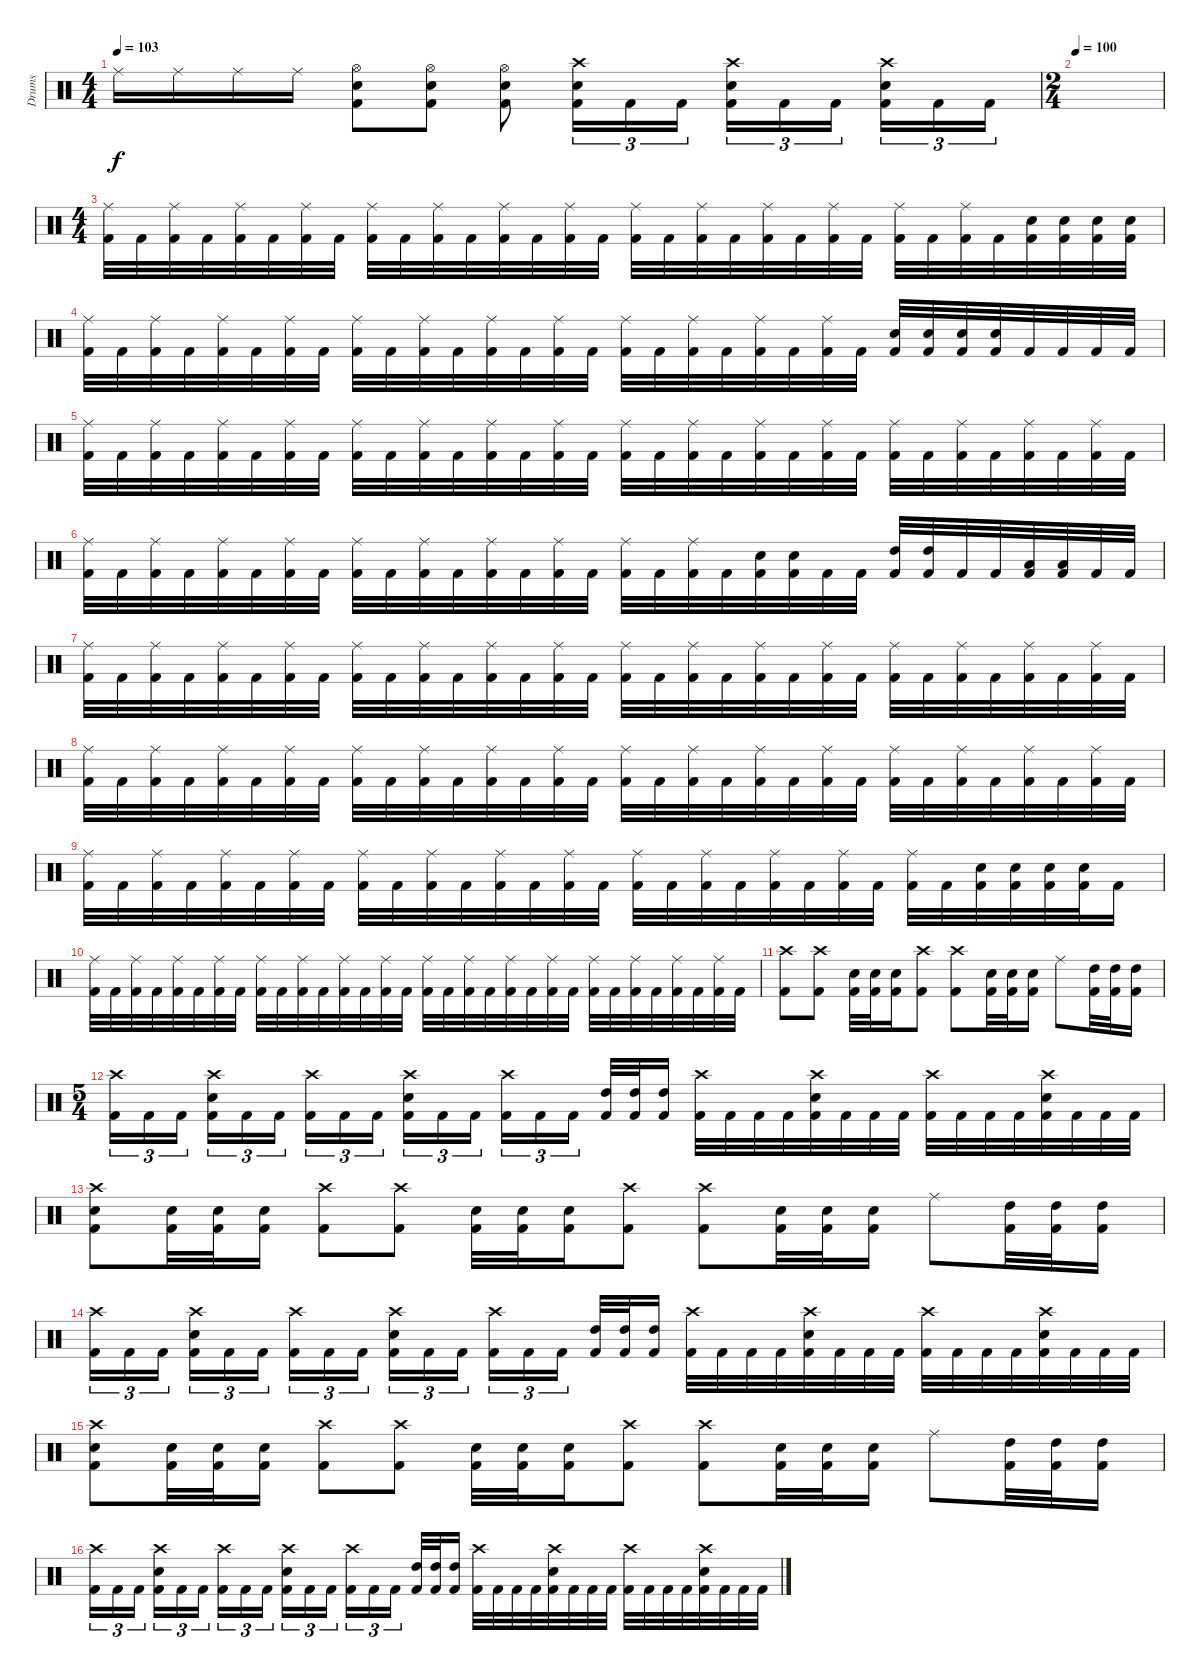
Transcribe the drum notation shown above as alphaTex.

\track ("Drums" "Drums") {instrument percussion}
\staff {score}
\articulation defaults
\ts (4 4)
\tempo 103
\clef neutral
\ks c "Ride (middle)".16{dy f} "Ride (middle)".16 "Ride (middle)".16 "Ride (middle)".16
("Hi-Hat (open)" "Electric Snare (hit)" "Kick (hit) 2").8 ("Hi-Hat (open)" "Electric Snare (hit)" "Kick (hit) 2").8 ("Hi-Hat (open)" "Electric Snare (hit)" "Kick (hit) 2").8 ("Crash high (hit)" "Electric Snare (hit)" "Kick (hit) 2").16{tu (3 2)} "Kick (hit) 2".16{tu (3 2)} "Kick (hit) 2".16{tu (3 2)} ("Crash high (hit)" "Electric Snare (hit)" "Kick (hit) 2").16{tu (3 2)} "Kick (hit) 2".16{tu (3 2)} "Kick (hit) 2".16{tu (3 2) beam splitsecondary} ("Crash high (hit)" "Electric Snare (hit)" "Kick (hit) 2").16{tu (3 2)} "Kick (hit) 2".16{tu (3 2)} "Kick (hit) 2".16{tu (3 2)} |
\ts (2 4)
\tempo 100
|
\ts (4 4)
("Ride (middle)" "Kick (hit) 2").32 "Kick (hit) 2".32 ("Ride (middle)" "Kick (hit) 2").32 "Kick (hit) 2".32 ("Ride (middle)" "Kick (hit) 2").32 "Kick (hit) 2".32 ("Ride (middle)" "Kick (hit) 2").32 "Kick (hit) 2".32 ("Ride (middle)" "Kick (hit) 2").32 "Kick (hit) 2".32 ("Ride (middle)" "Kick (hit) 2").32 "Kick (hit) 2".32 ("Ride (middle)" "Kick (hit) 2").32 "Kick (hit) 2".32 ("Ride (middle)" "Kick (hit) 2").32 "Kick (hit) 2".32 ("Ride (middle)" "Kick (hit) 2").32 "Kick (hit) 2".32 ("Ride (middle)" "Kick (hit) 2").32 "Kick (hit) 2".32 ("Ride (middle)" "Kick (hit) 2").32 "Kick (hit) 2".32 ("Ride (middle)" "Kick (hit) 2").32 "Kick (hit) 2".32 ("Ride (middle)" "Kick (hit) 2").32 "Kick (hit) 2".32 ("Ride (middle)" "Kick (hit) 2").32 "Kick (hit) 2".32 ("Electric Snare (hit)" "Kick (hit) 2").32 ("Electric Snare (hit)" "Kick (hit) 2").32 ("Electric Snare (hit)" "Kick (hit) 2").32 ("Electric Snare (hit)" "Kick (hit) 2").32 |
("Ride (middle)" "Kick (hit) 2").32 "Kick (hit) 2".32 ("Ride (middle)" "Kick (hit) 2").32 "Kick (hit) 2".32 ("Ride (middle)" "Kick (hit) 2").32 "Kick (hit) 2".32 ("Ride (middle)" "Kick (hit) 2").32 "Kick (hit) 2".32 ("Ride (middle)" "Kick (hit) 2").32 "Kick (hit) 2".32 ("Ride (middle)" "Kick (hit) 2").32 "Kick (hit) 2".32 ("Ride (middle)" "Kick (hit) 2").32 "Kick (hit) 2".32 ("Ride (middle)" "Kick (hit) 2").32 "Kick (hit) 2".32 ("Ride (middle)" "Kick (hit) 2").32 "Kick (hit) 2".32 ("Ride (middle)" "Kick (hit) 2").32 "Kick (hit) 2".32 ("Ride (middle)" "Kick (hit) 2").32 "Kick (hit) 2".32 ("Ride (middle)" "Kick (hit) 2").32 "Kick (hit) 2".32 ("Electric Snare (hit)" "Kick (hit) 2").32 ("Electric Snare (hit)" "Kick (hit) 2").32 ("Electric Snare (hit)" "Kick (hit) 2").32 ("Electric Snare (hit)" "Kick (hit) 2").32 "Kick (hit) 2".32 "Kick (hit) 2".32 "Kick (hit) 2".32 "Kick (hit) 2".32 |
("Ride (middle)" "Kick (hit) 2").32 "Kick (hit) 2".32 ("Ride (middle)" "Kick (hit) 2").32 "Kick (hit) 2".32 ("Ride (middle)" "Kick (hit) 2").32 "Kick (hit) 2".32 ("Ride (middle)" "Kick (hit) 2").32 "Kick (hit) 2".32 ("Ride (middle)" "Kick (hit) 2").32 "Kick (hit) 2".32 ("Ride (middle)" "Kick (hit) 2").32 "Kick (hit) 2".32 ("Ride (middle)" "Kick (hit) 2").32 "Kick (hit) 2".32 ("Ride (middle)" "Kick (hit) 2").32 "Kick (hit) 2".32 ("Ride (middle)" "Kick (hit) 2").32 "Kick (hit) 2".32 ("Ride (middle)" "Kick (hit) 2").32 "Kick (hit) 2".32 ("Ride (middle)" "Kick (hit) 2").32 "Kick (hit) 2".32 ("Ride (middle)" "Kick (hit) 2").32 "Kick (hit) 2".32 ("Ride (middle)" "Kick (hit) 2").32 "Kick (hit) 2".32 ("Ride (middle)" "Kick (hit) 2").32 "Kick (hit) 2".32 ("Ride (middle)" "Kick (hit) 2").32 "Kick (hit) 2".32 ("Ride (middle)" "Kick (hit) 2").32 "Kick (hit) 2".32 |
("Ride (middle)" "Kick (hit) 2").32 "Kick (hit) 2".32 ("Ride (middle)" "Kick (hit) 2").32 "Kick (hit) 2".32 ("Ride (middle)" "Kick (hit) 2").32 "Kick (hit) 2".32 ("Ride (middle)" "Kick (hit) 2").32 "Kick (hit) 2".32 ("Ride (middle)" "Kick (hit) 2").32 "Kick (hit) 2".32 ("Ride (middle)" "Kick (hit) 2").32 "Kick (hit) 2".32 ("Ride (middle)" "Kick (hit) 2").32 "Kick (hit) 2".32 ("Ride (middle)" "Kick (hit) 2").32 "Kick (hit) 2".32 ("Ride (middle)" "Kick (hit) 2").32 "Kick (hit) 2".32 ("Ride (middle)" "Kick (hit) 2").32 "Kick (hit) 2".32 ("Electric Snare (hit)" "Kick (hit) 2").32 ("Electric Snare (hit)" "Kick (hit) 2").32 "Kick (hit) 2".32 "Kick (hit) 2".32 ("High Tom (hit)" "Kick (hit) 2").32 ("High Tom (hit)" "Kick (hit) 2").32 "Kick (hit) 2".32 "Kick (hit) 2".32 ("Low Tom (hit)" "Kick (hit) 2").32 ("Low Tom (hit)" "Kick (hit) 2").32 "Kick (hit) 2".32 "Kick (hit) 2".32 |
("Ride (middle)" "Kick (hit) 2").32 "Kick (hit) 2".32 ("Ride (middle)" "Kick (hit) 2").32 "Kick (hit) 2".32 ("Ride (middle)" "Kick (hit) 2").32 "Kick (hit) 2".32 ("Ride (middle)" "Kick (hit) 2").32 "Kick (hit) 2".32 ("Ride (middle)" "Kick (hit) 2").32 "Kick (hit) 2".32 ("Ride (middle)" "Kick (hit) 2").32 "Kick (hit) 2".32 ("Ride (middle)" "Kick (hit) 2").32 "Kick (hit) 2".32 ("Ride (middle)" "Kick (hit) 2").32 "Kick (hit) 2".32 ("Ride (middle)" "Kick (hit) 2").32 "Kick (hit) 2".32 ("Ride (middle)" "Kick (hit) 2").32 "Kick (hit) 2".32 ("Ride (middle)" "Kick (hit) 2").32 "Kick (hit) 2".32 ("Ride (middle)" "Kick (hit) 2").32 "Kick (hit) 2".32 ("Ride (middle)" "Kick (hit) 2").32 "Kick (hit) 2".32 ("Ride (middle)" "Kick (hit) 2").32 "Kick (hit) 2".32 ("Ride (middle)" "Kick (hit) 2").32 "Kick (hit) 2".32 ("Ride (middle)" "Kick (hit) 2").32 "Kick (hit) 2".32 |
("Ride (middle)" "Kick (hit) 2").32 "Kick (hit) 2".32 ("Ride (middle)" "Kick (hit) 2").32 "Kick (hit) 2".32 ("Ride (middle)" "Kick (hit) 2").32 "Kick (hit) 2".32 ("Ride (middle)" "Kick (hit) 2").32 "Kick (hit) 2".32 ("Ride (middle)" "Kick (hit) 2").32 "Kick (hit) 2".32 ("Ride (middle)" "Kick (hit) 2").32 "Kick (hit) 2".32 ("Ride (middle)" "Kick (hit) 2").32 "Kick (hit) 2".32 ("Ride (middle)" "Kick (hit) 2").32 "Kick (hit) 2".32 ("Ride (middle)" "Kick (hit) 2").32 "Kick (hit) 2".32 ("Ride (middle)" "Kick (hit) 2").32 "Kick (hit) 2".32 ("Ride (middle)" "Kick (hit) 2").32 "Kick (hit) 2".32 ("Ride (middle)" "Kick (hit) 2").32 "Kick (hit) 2".32 ("Ride (middle)" "Kick (hit) 2").32 "Kick (hit) 2".32 ("Ride (middle)" "Kick (hit) 2").32 "Kick (hit) 2".32 ("Ride (middle)" "Kick (hit) 2").32 "Kick (hit) 2".32 ("Ride (middle)" "Kick (hit) 2").32 "Kick (hit) 2".32 |
("Ride (middle)" "Kick (hit) 2").32 "Kick (hit) 2".32 ("Ride (middle)" "Kick (hit) 2").32 "Kick (hit) 2".32 ("Ride (middle)" "Kick (hit) 2").32 "Kick (hit) 2".32 ("Ride (middle)" "Kick (hit) 2").32 "Kick (hit) 2".32 ("Ride (middle)" "Kick (hit) 2").32 "Kick (hit) 2".32 ("Ride (middle)" "Kick (hit) 2").32 "Kick (hit) 2".32 ("Ride (middle)" "Kick (hit) 2").32 "Kick (hit) 2".32 ("Ride (middle)" "Kick (hit) 2").32 "Kick (hit) 2".32 ("Ride (middle)" "Kick (hit) 2").32 "Kick (hit) 2".32 ("Ride (middle)" "Kick (hit) 2").32 "Kick (hit) 2".32 ("Ride (middle)" "Kick (hit) 2").32 "Kick (hit) 2".32 ("Ride (middle)" "Kick (hit) 2").32 "Kick (hit) 2".32 ("Ride (middle)" "Kick (hit) 2").32 "Kick (hit) 2".32 ("Electric Snare (hit)" "Kick (hit) 2").32 ("Electric Snare (hit)" "Kick (hit) 2").32 ("Electric Snare (hit)" "Kick (hit) 2").32 ("Electric Snare (hit)" "Kick (hit) 2").32 "Kick (hit) 2".16 |
("Ride (middle)" "Kick (hit) 2").32 "Kick (hit) 2".32 ("Ride (middle)" "Kick (hit) 2").32 "Kick (hit) 2".32 ("Ride (middle)" "Kick (hit) 2").32 "Kick (hit) 2".32 ("Ride (middle)" "Kick (hit) 2").32 "Kick (hit) 2".32 ("Ride (middle)" "Kick (hit) 2").32 "Kick (hit) 2".32 ("Ride (middle)" "Kick (hit) 2").32 "Kick (hit) 2".32 ("Ride (middle)" "Kick (hit) 2").32 "Kick (hit) 2".32 ("Ride (middle)" "Kick (hit) 2").32 "Kick (hit) 2".32 ("Ride (middle)" "Kick (hit) 2").32 "Kick (hit) 2".32 ("Ride (middle)" "Kick (hit) 2").32 "Kick (hit) 2".32 ("Ride (middle)" "Kick (hit) 2").32 "Kick (hit) 2".32 ("Ride (middle)" "Kick (hit) 2").32 "Kick (hit) 2".32 ("Ride (middle)" "Kick (hit) 2").32 "Kick (hit) 2".32 ("Ride (middle)" "Kick (hit) 2").32 "Kick (hit) 2".32 ("Ride (middle)" "Kick (hit) 2").32 "Kick (hit) 2".32 ("Ride (middle)" "Kick (hit) 2").32 "Kick (hit) 2".32 |
("Crash high (hit)" "Kick (hit) 2").8 ("Crash high (hit)" "Kick (hit) 2").8 ("Electric Snare (hit)" "Kick (hit) 2").32 ("Electric Snare (hit)" "Kick (hit) 2").32 ("Electric Snare (hit)" "Kick (hit) 2").16 ("Crash high (hit)" "Kick (hit) 2").8 ("Crash high (hit)" "Kick (hit) 2").8 ("Electric Snare (hit)" "Kick (hit) 2").32 ("Electric Snare (hit)" "Kick (hit) 2").32 ("Electric Snare (hit)" "Kick (hit) 2").16 "Ride (middle)".8 ("High Tom (hit)" "Kick (hit) 2").32 ("High Tom (hit)" "Kick (hit) 2").32 ("High Tom (hit)" "Kick (hit) 2").16 |
\ts (5 4)
("Crash high (hit)" "Kick (hit) 2").16{tu (3 2)} "Kick (hit) 2".16{tu (3 2)} "Kick (hit) 2".16{tu (3 2) beam splitsecondary} ("Crash high (hit)" "Electric Snare (hit)" "Kick (hit) 2").16{tu (3 2)} "Kick (hit) 2".16{tu (3 2)} "Kick (hit) 2".16{tu (3 2)} ("Crash high (hit)" "Kick (hit) 2").16{tu (3 2)} "Kick (hit) 2".16{tu (3 2)} "Kick (hit) 2".16{tu (3 2) beam splitsecondary} ("Crash high (hit)" "Electric Snare (hit)" "Kick (hit) 2").16{tu (3 2)} "Kick (hit) 2".16{tu (3 2)} "Kick (hit) 2".16{tu (3 2)} ("Crash high (hit)" "Kick (hit) 2").16{tu (3 2)} "Kick (hit) 2".16{tu (3 2)} "Kick (hit) 2".16{tu (3 2) beam splitsecondary} ("High Tom (hit)" "Kick (hit) 2").32 ("High Tom (hit)" "Kick (hit) 2").32 ("High Tom (hit)" "Kick (hit) 2").16 ("Crash high (hit)" "Kick (hit) 2").32 "Kick (hit) 2".32 "Kick (hit) 2".32 "Kick (hit) 2".32 ("Crash high (hit)" "Electric Snare (hit)" "Kick (hit) 2").32 "Kick (hit) 2".32 "Kick (hit) 2".32 "Kick (hit) 2".32 ("Crash high (hit)" "Kick (hit) 2").32 "Kick (hit) 2".32 "Kick (hit) 2".32 "Kick (hit) 2".32 ("Crash high (hit)" "Electric Snare (hit)" "Kick (hit) 2").32 "Kick (hit) 2".32 "Kick (hit) 2".32 "Kick (hit) 2".32 |
("Crash high (hit)" "Electric Snare (hit)" "Kick (hit) 2").8 ("Electric Snare (hit)" "Kick (hit) 2").32 ("Electric Snare (hit)" "Kick (hit) 2").32 ("Electric Snare (hit)" "Kick (hit) 2").16 ("Crash high (hit)" "Kick (hit) 2").8 ("Crash high (hit)" "Kick (hit) 2").8 ("Electric Snare (hit)" "Kick (hit) 2").32 ("Electric Snare (hit)" "Kick (hit) 2").32 ("Electric Snare (hit)" "Kick (hit) 2").16 ("Crash high (hit)" "Kick (hit) 2").8 ("Crash high (hit)" "Kick (hit) 2").8 ("Electric Snare (hit)" "Kick (hit) 2").32 ("Electric Snare (hit)" "Kick (hit) 2").32 ("Electric Snare (hit)" "Kick (hit) 2").16 "Ride (middle)".8 ("High Tom (hit)" "Kick (hit) 2").32 ("High Tom (hit)" "Kick (hit) 2").32 ("High Tom (hit)" "Kick (hit) 2").16 |
("Crash high (hit)" "Kick (hit) 2").16{tu (3 2)} "Kick (hit) 2".16{tu (3 2)} "Kick (hit) 2".16{tu (3 2) beam splitsecondary} ("Crash high (hit)" "Electric Snare (hit)" "Kick (hit) 2").16{tu (3 2)} "Kick (hit) 2".16{tu (3 2)} "Kick (hit) 2".16{tu (3 2)} ("Crash high (hit)" "Kick (hit) 2").16{tu (3 2)} "Kick (hit) 2".16{tu (3 2)} "Kick (hit) 2".16{tu (3 2) beam splitsecondary} ("Crash high (hit)" "Electric Snare (hit)" "Kick (hit) 2").16{tu (3 2)} "Kick (hit) 2".16{tu (3 2)} "Kick (hit) 2".16{tu (3 2)} ("Crash high (hit)" "Kick (hit) 2").16{tu (3 2)} "Kick (hit) 2".16{tu (3 2)} "Kick (hit) 2".16{tu (3 2) beam splitsecondary} ("High Tom (hit)" "Kick (hit) 2").32 ("High Tom (hit)" "Kick (hit) 2").32 ("High Tom (hit)" "Kick (hit) 2").16 ("Crash high (hit)" "Kick (hit) 2").32 "Kick (hit) 2".32 "Kick (hit) 2".32 "Kick (hit) 2".32 ("Crash high (hit)" "Electric Snare (hit)" "Kick (hit) 2").32 "Kick (hit) 2".32 "Kick (hit) 2".32 "Kick (hit) 2".32 ("Crash high (hit)" "Kick (hit) 2").32 "Kick (hit) 2".32 "Kick (hit) 2".32 "Kick (hit) 2".32 ("Crash high (hit)" "Electric Snare (hit)" "Kick (hit) 2").32 "Kick (hit) 2".32 "Kick (hit) 2".32 "Kick (hit) 2".32 |
("Crash high (hit)" "Electric Snare (hit)" "Kick (hit) 2").8 ("Electric Snare (hit)" "Kick (hit) 2").32 ("Electric Snare (hit)" "Kick (hit) 2").32 ("Electric Snare (hit)" "Kick (hit) 2").16 ("Crash high (hit)" "Kick (hit) 2").8 ("Crash high (hit)" "Kick (hit) 2").8 ("Electric Snare (hit)" "Kick (hit) 2").32 ("Electric Snare (hit)" "Kick (hit) 2").32 ("Electric Snare (hit)" "Kick (hit) 2").16 ("Crash high (hit)" "Kick (hit) 2").8 ("Crash high (hit)" "Kick (hit) 2").8 ("Electric Snare (hit)" "Kick (hit) 2").32 ("Electric Snare (hit)" "Kick (hit) 2").32 ("Electric Snare (hit)" "Kick (hit) 2").16 "Ride (middle)".8 ("High Tom (hit)" "Kick (hit) 2").32 ("High Tom (hit)" "Kick (hit) 2").32 ("High Tom (hit)" "Kick (hit) 2").16 |
("Crash high (hit)" "Kick (hit) 2").16{tu (3 2)} "Kick (hit) 2".16{tu (3 2)} "Kick (hit) 2".16{tu (3 2) beam splitsecondary} ("Crash high (hit)" "Electric Snare (hit)" "Kick (hit) 2").16{tu (3 2)} "Kick (hit) 2".16{tu (3 2)} "Kick (hit) 2".16{tu (3 2)} ("Crash high (hit)" "Kick (hit) 2").16{tu (3 2)} "Kick (hit) 2".16{tu (3 2)} "Kick (hit) 2".16{tu (3 2) beam splitsecondary} ("Crash high (hit)" "Electric Snare (hit)" "Kick (hit) 2").16{tu (3 2)} "Kick (hit) 2".16{tu (3 2)} "Kick (hit) 2".16{tu (3 2)} ("Crash high (hit)" "Kick (hit) 2").16{tu (3 2)} "Kick (hit) 2".16{tu (3 2)} "Kick (hit) 2".16{tu (3 2) beam splitsecondary} ("High Tom (hit)" "Kick (hit) 2").32 ("High Tom (hit)" "Kick (hit) 2").32 ("High Tom (hit)" "Kick (hit) 2").16 ("Crash high (hit)" "Kick (hit) 2").32 "Kick (hit) 2".32 "Kick (hit) 2".32 "Kick (hit) 2".32 ("Crash high (hit)" "Electric Snare (hit)" "Kick (hit) 2").32 "Kick (hit) 2".32 "Kick (hit) 2".32 "Kick (hit) 2".32 ("Crash high (hit)" "Kick (hit) 2").32 "Kick (hit) 2".32 "Kick (hit) 2".32 "Kick (hit) 2".32 ("Crash high (hit)" "Electric Snare (hit)" "Kick (hit) 2").32 "Kick (hit) 2".32 "Kick (hit) 2".32 "Kick (hit) 2".32
